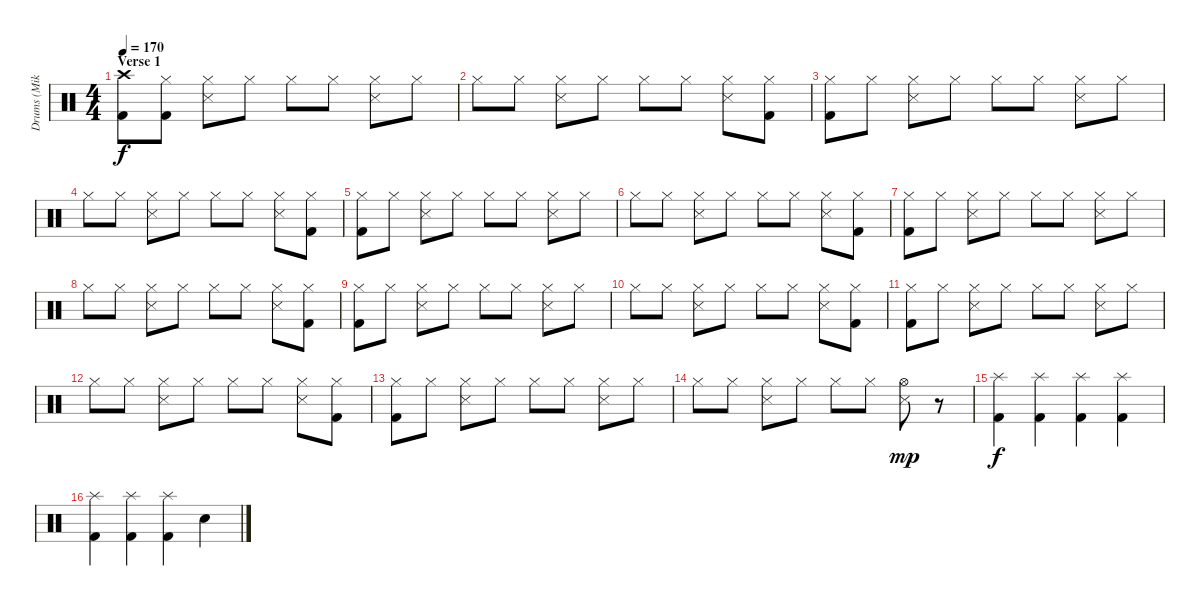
\track ("Drums (Mike C)" "Drums (Mik") {instrument percussion}
\staff {score}
\articulation defaults
\ts (4 4)
\section ("" "Verse 1")
\tempo 170
\clef neutral
\ks c
("Crash high (hit)" "Kick (hit) 2").8{dy f} ("Hi-Hat (closed)" "Kick (hit) 2").8 ("Hi-Hat (closed)" "Snare (side stick) 3").8 "Hi-Hat (closed)".8 "Hi-Hat (closed)".8 "Hi-Hat (closed)".8 ("Hi-Hat (closed)" "Snare (side stick) 3").8 "Hi-Hat (closed)".8 |
"Hi-Hat (closed)".8 "Hi-Hat (closed)".8 ("Hi-Hat (closed)" "Snare (side stick) 3").8 "Hi-Hat (closed)".8 "Hi-Hat (closed)".8 "Hi-Hat (closed)".8 ("Hi-Hat (closed)" "Snare (side stick) 3").8 ("Hi-Hat (closed)" "Kick (hit) 2").8 |
("Hi-Hat (closed)" "Kick (hit) 2").8 "Hi-Hat (closed)".8 ("Hi-Hat (closed)" "Snare (side stick) 3").8 "Hi-Hat (closed)".8 "Hi-Hat (closed)".8 "Hi-Hat (closed)".8 ("Hi-Hat (closed)" "Snare (side stick) 3").8 "Hi-Hat (closed)".8 |
"Hi-Hat (closed)".8 "Hi-Hat (closed)".8 ("Hi-Hat (closed)" "Snare (side stick) 3").8 "Hi-Hat (closed)".8 "Hi-Hat (closed)".8 "Hi-Hat (closed)".8 ("Hi-Hat (closed)" "Snare (side stick) 3").8 ("Hi-Hat (closed)" "Kick (hit) 2").8 |
("Hi-Hat (closed)" "Kick (hit) 2").8 "Hi-Hat (closed)".8 ("Hi-Hat (closed)" "Snare (side stick) 3").8 "Hi-Hat (closed)".8 "Hi-Hat (closed)".8 "Hi-Hat (closed)".8 ("Hi-Hat (closed)" "Snare (side stick) 3").8 "Hi-Hat (closed)".8 |
"Hi-Hat (closed)".8 "Hi-Hat (closed)".8 ("Hi-Hat (closed)" "Snare (side stick) 3").8 "Hi-Hat (closed)".8 "Hi-Hat (closed)".8 "Hi-Hat (closed)".8 ("Hi-Hat (closed)" "Snare (side stick) 3").8 ("Hi-Hat (closed)" "Kick (hit) 2").8 |
("Hi-Hat (closed)" "Kick (hit) 2").8 "Hi-Hat (closed)".8 ("Hi-Hat (closed)" "Snare (side stick) 3").8 "Hi-Hat (closed)".8 "Hi-Hat (closed)".8 "Hi-Hat (closed)".8 ("Hi-Hat (closed)" "Snare (side stick) 3").8 "Hi-Hat (closed)".8 |
"Hi-Hat (closed)".8 "Hi-Hat (closed)".8 ("Hi-Hat (closed)" "Snare (side stick) 3").8 "Hi-Hat (closed)".8 "Hi-Hat (closed)".8 "Hi-Hat (closed)".8 ("Hi-Hat (closed)" "Snare (side stick) 3").8 ("Hi-Hat (closed)" "Kick (hit) 2").8 |
("Hi-Hat (closed)" "Kick (hit) 2").8 "Hi-Hat (closed)".8 ("Hi-Hat (closed)" "Snare (side stick) 3").8 "Hi-Hat (closed)".8 "Hi-Hat (closed)".8 "Hi-Hat (closed)".8 ("Hi-Hat (closed)" "Snare (side stick) 3").8 "Hi-Hat (closed)".8 |
"Hi-Hat (closed)".8 "Hi-Hat (closed)".8 ("Hi-Hat (closed)" "Snare (side stick) 3").8 "Hi-Hat (closed)".8 "Hi-Hat (closed)".8 "Hi-Hat (closed)".8 ("Hi-Hat (closed)" "Snare (side stick) 3").8 ("Hi-Hat (closed)" "Kick (hit) 2").8 |
("Hi-Hat (closed)" "Kick (hit) 2").8 "Hi-Hat (closed)".8 ("Hi-Hat (closed)" "Snare (side stick) 3").8 "Hi-Hat (closed)".8 "Hi-Hat (closed)".8 "Hi-Hat (closed)".8 ("Hi-Hat (closed)" "Snare (side stick) 3").8 "Hi-Hat (closed)".8 |
"Hi-Hat (closed)".8 "Hi-Hat (closed)".8 ("Hi-Hat (closed)" "Snare (side stick) 3").8 "Hi-Hat (closed)".8 "Hi-Hat (closed)".8 "Hi-Hat (closed)".8 ("Hi-Hat (closed)" "Snare (side stick) 3").8 ("Hi-Hat (closed)" "Kick (hit) 2").8 |
("Hi-Hat (closed)" "Kick (hit) 2").8 "Hi-Hat (closed)".8 ("Hi-Hat (closed)" "Snare (side stick) 3").8 "Hi-Hat (closed)".8 "Hi-Hat (closed)".8 "Hi-Hat (closed)".8 ("Hi-Hat (closed)" "Snare (side stick) 3").8 "Hi-Hat (closed)".8 |
"Hi-Hat (closed)".8 "Hi-Hat (closed)".8 ("Hi-Hat (closed)" "Snare (side stick) 3").8 "Hi-Hat (closed)".8 "Hi-Hat (closed)".8 "Hi-Hat (closed)".8 ("Hi-Hat (open)" "Snare (side stick) 3").8{dy mp} r.8 |
("Splash (hit)" "Kick (hit) 2").4{dy f} ("Splash (hit)" "Kick (hit) 2").4 ("Splash (hit)" "Kick (hit) 2").4 ("Splash (hit)" "Kick (hit) 2").4 |
("Splash (hit)" "Kick (hit) 2").4 ("Splash (hit)" "Kick (hit) 2").4 ("Splash (hit)" "Kick (hit) 2").4 "Snare (hit) 2".4
